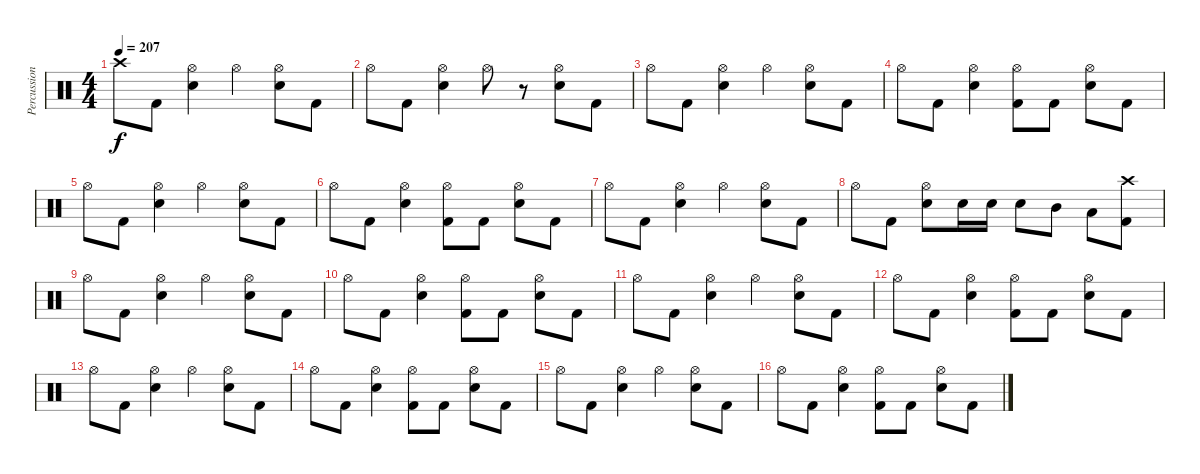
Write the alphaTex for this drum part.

\track ("Percussion" "Percussion") {instrument percussion}
\staff {score}
\articulation defaults
\ts (4 4)
\tempo 207
\clef neutral
\ks c "Crash high (hit)".8{dy f} "Kick (hit) 2".8
("Hi-Hat (open)" "Snare (hit) 2").4 "Hi-Hat (open)".4 ("Hi-Hat (open)" "Snare (hit) 2").8 "Kick (hit) 2".8 |
"Hi-Hat (open)".8 "Kick (hit) 2".8 ("Hi-Hat (open)" "Snare (hit) 2").4 "Hi-Hat (open)".8 r.8 ("Hi-Hat (open)" "Snare (hit) 2").8 "Kick (hit) 2".8 |
"Hi-Hat (open)".8 "Kick (hit) 2".8 ("Hi-Hat (open)" "Snare (hit) 2").4 "Hi-Hat (open)".4 ("Hi-Hat (open)" "Snare (hit) 2").8 "Kick (hit) 2".8 |
"Hi-Hat (open)".8 "Kick (hit) 2".8 ("Hi-Hat (open)" "Snare (hit) 2").4 ("Hi-Hat (open)" "Kick (hit) 2").8 "Kick (hit) 2".8 ("Hi-Hat (open)" "Snare (hit) 2").8 "Kick (hit) 2".8 |
"Hi-Hat (open)".8 "Kick (hit) 2".8 ("Hi-Hat (open)" "Snare (hit) 2").4 "Hi-Hat (open)".4 ("Hi-Hat (open)" "Snare (hit) 2").8 "Kick (hit) 2".8 |
"Hi-Hat (open)".8 "Kick (hit) 2".8 ("Hi-Hat (open)" "Snare (hit) 2").4 ("Hi-Hat (open)" "Kick (hit) 2").8 "Kick (hit) 2".8 ("Hi-Hat (open)" "Snare (hit) 2").8 "Kick (hit) 2".8 |
"Hi-Hat (open)".8 "Kick (hit) 2".8 ("Hi-Hat (open)" "Snare (hit) 2").4 "Hi-Hat (open)".4 ("Hi-Hat (open)" "Snare (hit) 2").8 "Kick (hit) 2".8 |
"Hi-Hat (open)".8 "Kick (hit) 2".8 ("Hi-Hat (open)" "Snare (hit) 2").8 "Snare (hit) 2".16 "Snare (hit) 2".16 "Snare (hit) 2".8 "Mid Tom (hit)".8 "Low Tom (hit)".8 ("Crash high (hit)" "Kick (hit) 2").8 |
"Hi-Hat (open)".8 "Kick (hit) 2".8 ("Hi-Hat (open)" "Snare (hit) 2").4 "Hi-Hat (open)".4 ("Hi-Hat (open)" "Snare (hit) 2").8 "Kick (hit) 2".8 |
"Hi-Hat (open)".8 "Kick (hit) 2".8 ("Hi-Hat (open)" "Snare (hit) 2").4 ("Hi-Hat (open)" "Kick (hit) 2").8 "Kick (hit) 2".8 ("Hi-Hat (open)" "Snare (hit) 2").8 "Kick (hit) 2".8 |
"Hi-Hat (open)".8 "Kick (hit) 2".8 ("Hi-Hat (open)" "Snare (hit) 2").4 "Hi-Hat (open)".4 ("Hi-Hat (open)" "Snare (hit) 2").8 "Kick (hit) 2".8 |
"Hi-Hat (open)".8 "Kick (hit) 2".8 ("Hi-Hat (open)" "Snare (hit) 2").4 ("Hi-Hat (open)" "Kick (hit) 2").8 "Kick (hit) 2".8 ("Hi-Hat (open)" "Snare (hit) 2").8 "Kick (hit) 2".8 |
"Hi-Hat (open)".8 "Kick (hit) 2".8 ("Hi-Hat (open)" "Snare (hit) 2").4 "Hi-Hat (open)".4 ("Hi-Hat (open)" "Snare (hit) 2").8 "Kick (hit) 2".8 |
"Hi-Hat (open)".8 "Kick (hit) 2".8 ("Hi-Hat (open)" "Snare (hit) 2").4 ("Hi-Hat (open)" "Kick (hit) 2").8 "Kick (hit) 2".8 ("Hi-Hat (open)" "Snare (hit) 2").8 "Kick (hit) 2".8 |
"Hi-Hat (open)".8 "Kick (hit) 2".8 ("Hi-Hat (open)" "Snare (hit) 2").4 "Hi-Hat (open)".4 ("Hi-Hat (open)" "Snare (hit) 2").8 "Kick (hit) 2".8 |
"Hi-Hat (open)".8 "Kick (hit) 2".8 ("Hi-Hat (open)" "Snare (hit) 2").4 ("Hi-Hat (open)" "Kick (hit) 2").8 "Kick (hit) 2".8 ("Hi-Hat (open)" "Snare (hit) 2").8 "Kick (hit) 2".8
